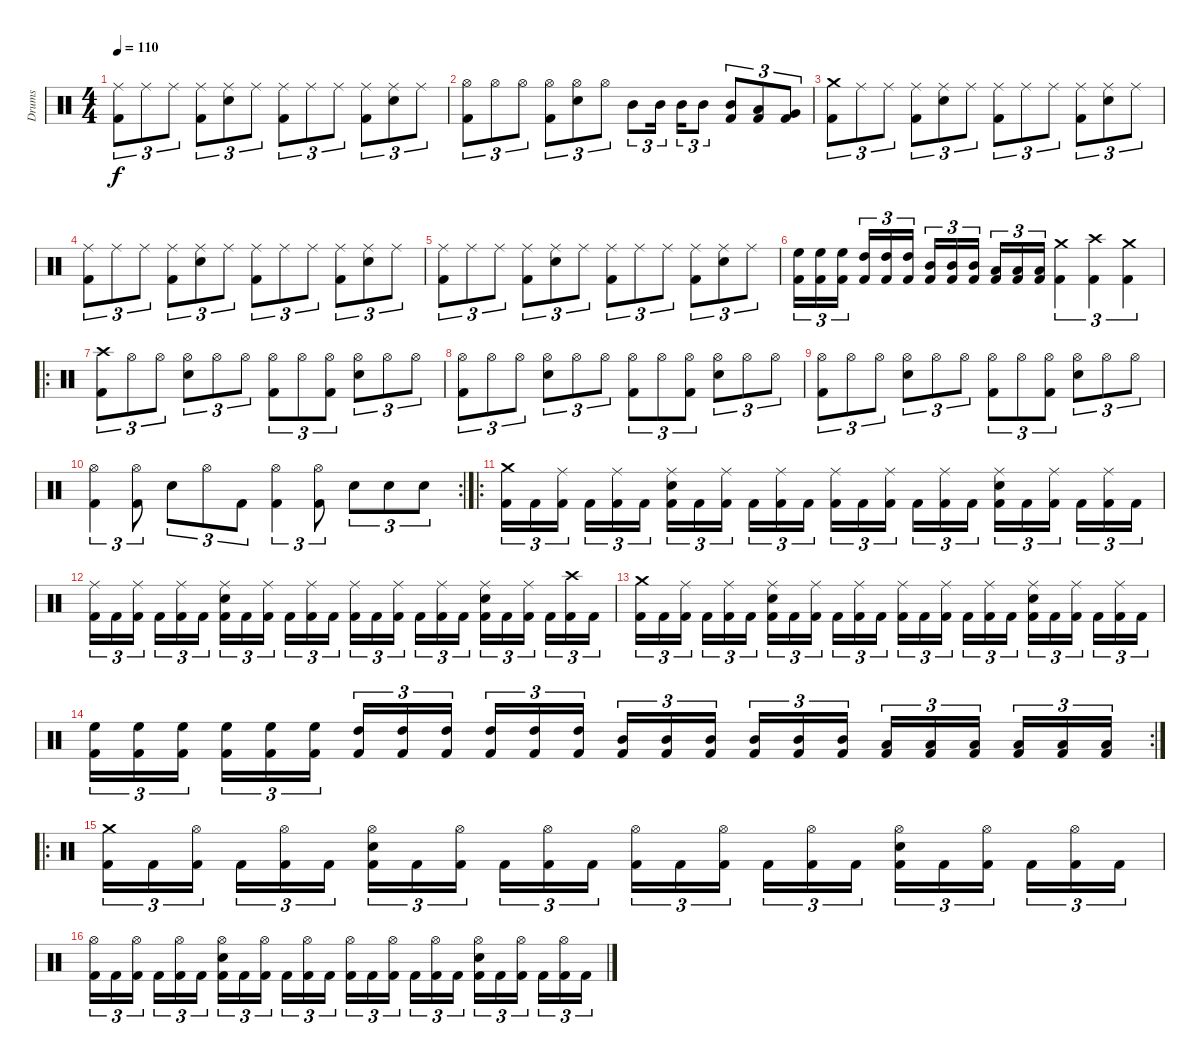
\track ("Drums" "Drums") {instrument percussion}
\staff {score}
\articulation defaults
\ts (4 4)
\tempo 110
\clef neutral
\ks c
("Kick (hit) 2" "Ride (middle)").8{tu (3 2) dy f} "Ride (middle)".8{tu (3 2)} "Ride (middle)".8{tu (3 2)} ("Kick (hit) 2" "Ride (middle)").8{tu (3 2)} ("Electric Snare (hit)" "Ride (middle)").8{tu (3 2)} "Ride (middle)".8{tu (3 2)} ("Kick (hit) 2" "Ride (middle)").8{tu (3 2)} "Ride (middle)".8{tu (3 2)} "Ride (middle)".8{tu (3 2)} ("Kick (hit) 2" "Ride (middle)").8{tu (3 2)} ("Electric Snare (hit)" "Ride (middle)").8{tu (3 2)} "Ride (middle)".8{tu (3 2)} |
("Kick (hit) 2" "Hi-Hat (open)").8{tu (3 2)} "Hi-Hat (open)".8{tu (3 2)} "Hi-Hat (open)".8{tu (3 2)} ("Kick (hit) 2" "Hi-Hat (open)").8{tu (3 2)} ("Electric Snare (hit)" "Hi-Hat (open)").8{tu (3 2)} "Hi-Hat (open)".8{tu (3 2)} "Mid Tom (hit)".8{tu (3 2)} "Mid Tom (hit)".16{tu (3 2)} "Mid Tom (hit)".16{tu (3 2)} "Mid Tom (hit)".8{tu (3 2)} ("Kick (hit) 2" "Mid Tom (hit)").8{tu (3 2)} ("Kick (hit) 2" "Low Tom (hit)").8{tu (3 2)} ("Kick (hit) 2" "Very Low Tom (hit)").8{tu (3 2)} |
("Kick (hit) 2" "Crash medium (hit)").8{tu (3 2)} "Ride (middle)".8{tu (3 2)} "Ride (middle)".8{tu (3 2)} ("Kick (hit) 2" "Ride (middle)").8{tu (3 2)} ("Electric Snare (hit)" "Ride (middle)").8{tu (3 2)} "Ride (middle)".8{tu (3 2)} ("Kick (hit) 2" "Ride (middle)").8{tu (3 2)} "Ride (middle)".8{tu (3 2)} "Ride (middle)".8{tu (3 2)} ("Kick (hit) 2" "Ride (middle)").8{tu (3 2)} ("Electric Snare (hit)" "Ride (middle)").8{tu (3 2)} "Ride (middle)".8{tu (3 2)} |
("Kick (hit) 2" "Ride (middle)").8{tu (3 2)} "Ride (middle)".8{tu (3 2)} "Ride (middle)".8{tu (3 2)} ("Kick (hit) 2" "Ride (middle)").8{tu (3 2)} ("Electric Snare (hit)" "Ride (middle)").8{tu (3 2)} "Ride (middle)".8{tu (3 2)} ("Kick (hit) 2" "Ride (middle)").8{tu (3 2)} "Ride (middle)".8{tu (3 2)} "Ride (middle)".8{tu (3 2)} ("Kick (hit) 2" "Ride (middle)").8{tu (3 2)} ("Electric Snare (hit)" "Ride (middle)").8{tu (3 2)} "Ride (middle)".8{tu (3 2)} |
("Kick (hit) 2" "Ride (middle)").8{tu (3 2)} "Ride (middle)".8{tu (3 2)} "Ride (middle)".8{tu (3 2)} ("Kick (hit) 2" "Ride (middle)").8{tu (3 2)} ("Electric Snare (hit)" "Ride (middle)").8{tu (3 2)} "Ride (middle)".8{tu (3 2)} ("Kick (hit) 2" "Ride (middle)").8{tu (3 2)} "Ride (middle)".8{tu (3 2)} "Ride (middle)".8{tu (3 2)} ("Kick (hit) 2" "Ride (middle)").8{tu (3 2)} ("Electric Snare (hit)" "Ride (middle)").8{tu (3 2)} "Ride (middle)".8{tu (3 2)} |
("Kick (hit) 2" "High Floor Tom (hit)").16{tu (3 2)} ("Kick (hit) 2" "High Floor Tom (hit)").16{tu (3 2)} ("Kick (hit) 2" "High Floor Tom (hit)").16{tu (3 2)} ("Kick (hit) 2" "High Tom (hit)").16{tu (3 2)} ("Kick (hit) 2" "High Tom (hit)").16{tu (3 2)} ("Kick (hit) 2" "High Tom (hit)").16{tu (3 2)} ("Kick (hit) 2" "Mid Tom (hit)").16{tu (3 2)} ("Kick (hit) 2" "Mid Tom (hit)").16{tu (3 2)} ("Kick (hit) 2" "Mid Tom (hit)").16{tu (3 2)} ("Kick (hit) 2" "Low Tom (hit)").16{tu (3 2)} ("Kick (hit) 2" "Low Tom (hit)").16{tu (3 2)} ("Kick (hit) 2" "Low Tom (hit)").16{tu (3 2)} ("Kick (hit) 2" "Crash medium (hit)").4{tu (3 2)} ("Kick (hit) 2" "Crash high (hit)").4{tu (3 2)} ("Kick (hit) 2" "Crash medium (hit)").4{tu (3 2)} |
\ro
("Kick (hit) 2" "Crash high (hit)").8{tu (3 2)} "Hi-Hat (open)".8{tu (3 2)} "Hi-Hat (open)".8{tu (3 2)} ("Electric Snare (hit)" "Hi-Hat (open)").8{tu (3 2)} "Hi-Hat (open)".8{tu (3 2)} "Hi-Hat (open)".8{tu (3 2)} ("Kick (hit) 2" "Hi-Hat (open)").8{tu (3 2)} "Hi-Hat (open)".8{tu (3 2)} ("Kick (hit) 2" "Hi-Hat (open)").8{tu (3 2)} ("Electric Snare (hit)" "Hi-Hat (open)").8{tu (3 2)} "Hi-Hat (open)".8{tu (3 2)} "Hi-Hat (open)".8{tu (3 2)} |
("Kick (hit) 2" "Hi-Hat (open)").8{tu (3 2)} "Hi-Hat (open)".8{tu (3 2)} "Hi-Hat (open)".8{tu (3 2)} ("Electric Snare (hit)" "Hi-Hat (open)").8{tu (3 2)} "Hi-Hat (open)".8{tu (3 2)} "Hi-Hat (open)".8{tu (3 2)} ("Kick (hit) 2" "Hi-Hat (open)").8{tu (3 2)} "Hi-Hat (open)".8{tu (3 2)} ("Kick (hit) 2" "Hi-Hat (open)").8{tu (3 2)} ("Electric Snare (hit)" "Hi-Hat (open)").8{tu (3 2)} "Hi-Hat (open)".8{tu (3 2)} "Hi-Hat (open)".8{tu (3 2)} |
("Kick (hit) 2" "Hi-Hat (open)").8{tu (3 2)} "Hi-Hat (open)".8{tu (3 2)} "Hi-Hat (open)".8{tu (3 2)} ("Electric Snare (hit)" "Hi-Hat (open)").8{tu (3 2)} "Hi-Hat (open)".8{tu (3 2)} "Hi-Hat (open)".8{tu (3 2)} ("Kick (hit) 2" "Hi-Hat (open)").8{tu (3 2)} "Hi-Hat (open)".8{tu (3 2)} ("Kick (hit) 2" "Hi-Hat (open)").8{tu (3 2)} ("Electric Snare (hit)" "Hi-Hat (open)").8{tu (3 2)} "Hi-Hat (open)".8{tu (3 2)} "Hi-Hat (open)".8{tu (3 2)} |
\rc 2
("Kick (hit) 2" "Hi-Hat (open)").4{tu (3 2)} ("Kick (hit) 2" "Hi-Hat (open)").8{tu (3 2)} "Electric Snare (hit)".8{tu (3 2)} "Hi-Hat (open)".8{tu (3 2)} "Kick (hit) 2".8{tu (3 2)} ("Kick (hit) 2" "Hi-Hat (open)").4{tu (3 2)} ("Kick (hit) 2" "Hi-Hat (open)").8{tu (3 2)} "Electric Snare (hit)".8{tu (3 2)} "Electric Snare (hit)".8{tu (3 2)} "Electric Snare (hit)".8{tu (3 2)} |
\ro
("Kick (hit) 2" "Crash medium (hit)").16{tu (3 2)} "Kick (hit) 2".16{tu (3 2)} ("Kick (hit) 2" "Ride (middle)").16{tu (3 2)} "Kick (hit) 2".16{tu (3 2)} ("Kick (hit) 2" "Ride (middle)").16{tu (3 2)} "Kick (hit) 2".16{tu (3 2)} ("Kick (hit) 2" "Electric Snare (hit)" "Ride (middle)").16{tu (3 2)} "Kick (hit) 2".16{tu (3 2)} ("Kick (hit) 2" "Ride (middle)").16{tu (3 2)} "Kick (hit) 2".16{tu (3 2)} ("Kick (hit) 2" "Ride (middle)").16{tu (3 2)} "Kick (hit) 2".16{tu (3 2)} ("Kick (hit) 2" "Ride (middle)").16{tu (3 2)} "Kick (hit) 2".16{tu (3 2)} ("Kick (hit) 2" "Ride (middle)").16{tu (3 2)} "Kick (hit) 2".16{tu (3 2)} ("Kick (hit) 2" "Ride (middle)").16{tu (3 2)} "Kick (hit) 2".16{tu (3 2)} ("Kick (hit) 2" "Electric Snare (hit)" "Ride (middle)").16{tu (3 2)} "Kick (hit) 2".16{tu (3 2)} ("Kick (hit) 2" "Ride (middle)").16{tu (3 2)} "Kick (hit) 2".16{tu (3 2)} ("Kick (hit) 2" "Ride (middle)").16{tu (3 2)} "Kick (hit) 2".16{tu (3 2)} |
("Kick (hit) 2" "Ride (middle)").16{tu (3 2)} "Kick (hit) 2".16{tu (3 2)} ("Kick (hit) 2" "Ride (middle)").16{tu (3 2)} "Kick (hit) 2".16{tu (3 2)} ("Kick (hit) 2" "Ride (middle)").16{tu (3 2)} "Kick (hit) 2".16{tu (3 2)} ("Kick (hit) 2" "Electric Snare (hit)" "Ride (middle)").16{tu (3 2)} "Kick (hit) 2".16{tu (3 2)} ("Kick (hit) 2" "Ride (middle)").16{tu (3 2)} "Kick (hit) 2".16{tu (3 2)} ("Kick (hit) 2" "Ride (middle)").16{tu (3 2)} "Kick (hit) 2".16{tu (3 2)} ("Kick (hit) 2" "Ride (middle)").16{tu (3 2)} "Kick (hit) 2".16{tu (3 2)} ("Kick (hit) 2" "Ride (middle)").16{tu (3 2)} "Kick (hit) 2".16{tu (3 2)} ("Kick (hit) 2" "Ride (middle)").16{tu (3 2)} "Kick (hit) 2".16{tu (3 2)} ("Kick (hit) 2" "Electric Snare (hit)" "Ride (middle)").16{tu (3 2)} "Kick (hit) 2".16{tu (3 2)} ("Kick (hit) 2" "Ride (middle)").16{tu (3 2)} "Kick (hit) 2".16{tu (3 2)} ("Kick (hit) 2" "Crash high (hit)").16{tu (3 2)} "Kick (hit) 2".16{tu (3 2)} |
("Kick (hit) 2" "Crash medium (hit)").16{tu (3 2)} "Kick (hit) 2".16{tu (3 2)} ("Kick (hit) 2" "Ride (middle)").16{tu (3 2)} "Kick (hit) 2".16{tu (3 2)} ("Kick (hit) 2" "Ride (middle)").16{tu (3 2)} "Kick (hit) 2".16{tu (3 2)} ("Kick (hit) 2" "Electric Snare (hit)" "Ride (middle)").16{tu (3 2)} "Kick (hit) 2".16{tu (3 2)} ("Kick (hit) 2" "Ride (middle)").16{tu (3 2)} "Kick (hit) 2".16{tu (3 2)} ("Kick (hit) 2" "Ride (middle)").16{tu (3 2)} "Kick (hit) 2".16{tu (3 2)} ("Kick (hit) 2" "Ride (middle)").16{tu (3 2)} "Kick (hit) 2".16{tu (3 2)} ("Kick (hit) 2" "Ride (middle)").16{tu (3 2)} "Kick (hit) 2".16{tu (3 2)} ("Kick (hit) 2" "Ride (middle)").16{tu (3 2)} "Kick (hit) 2".16{tu (3 2)} ("Kick (hit) 2" "Electric Snare (hit)" "Ride (middle)").16{tu (3 2)} "Kick (hit) 2".16{tu (3 2)} ("Kick (hit) 2" "Ride (middle)").16{tu (3 2)} "Kick (hit) 2".16{tu (3 2)} ("Kick (hit) 2" "Ride (middle)").16{tu (3 2)} "Kick (hit) 2".16{tu (3 2)} |
\rc 2
("Kick (hit) 2" "High Floor Tom (hit)").16{tu (3 2)} ("Kick (hit) 2" "High Floor Tom (hit)").16{tu (3 2)} ("Kick (hit) 2" "High Floor Tom (hit)").16{tu (3 2)} ("Kick (hit) 2" "High Floor Tom (hit)").16{tu (3 2)} ("Kick (hit) 2" "High Floor Tom (hit)").16{tu (3 2)} ("Kick (hit) 2" "High Floor Tom (hit)").16{tu (3 2)} ("Kick (hit) 2" "High Tom (hit)").16{tu (3 2)} ("Kick (hit) 2" "High Tom (hit)").16{tu (3 2)} ("Kick (hit) 2" "High Tom (hit)").16{tu (3 2)} ("Kick (hit) 2" "High Tom (hit)").16{tu (3 2)} ("Kick (hit) 2" "High Tom (hit)").16{tu (3 2)} ("Kick (hit) 2" "High Tom (hit)").16{tu (3 2)} ("Kick (hit) 2" "Mid Tom (hit)").16{tu (3 2)} ("Kick (hit) 2" "Mid Tom (hit)").16{tu (3 2)} ("Kick (hit) 2" "Mid Tom (hit)").16{tu (3 2)} ("Kick (hit) 2" "Mid Tom (hit)").16{tu (3 2)} ("Kick (hit) 2" "Mid Tom (hit)").16{tu (3 2)} ("Kick (hit) 2" "Mid Tom (hit)").16{tu (3 2)} ("Kick (hit) 2" "Low Tom (hit)").16{tu (3 2)} ("Kick (hit) 2" "Low Tom (hit)").16{tu (3 2)} ("Kick (hit) 2" "Low Tom (hit)").16{tu (3 2)} ("Kick (hit) 2" "Low Tom (hit)").16{tu (3 2)} ("Kick (hit) 2" "Low Tom (hit)").16{tu (3 2)} ("Kick (hit) 2" "Low Tom (hit)").16{tu (3 2)} |
\ro
("Kick (hit) 2" "Crash medium (hit)").16{tu (3 2)} "Kick (hit) 2".16{tu (3 2)} ("Kick (hit) 2" "Hi-Hat (open)").16{tu (3 2)} "Kick (hit) 2".16{tu (3 2)} ("Kick (hit) 2" "Hi-Hat (open)").16{tu (3 2)} "Kick (hit) 2".16{tu (3 2)} ("Kick (hit) 2" "Electric Snare (hit)" "Hi-Hat (open)").16{tu (3 2)} "Kick (hit) 2".16{tu (3 2)} ("Kick (hit) 2" "Hi-Hat (open)").16{tu (3 2)} "Kick (hit) 2".16{tu (3 2)} ("Kick (hit) 2" "Hi-Hat (open)").16{tu (3 2)} "Kick (hit) 2".16{tu (3 2)} ("Kick (hit) 2" "Hi-Hat (open)").16{tu (3 2)} "Kick (hit) 2".16{tu (3 2)} ("Kick (hit) 2" "Hi-Hat (open)").16{tu (3 2)} "Kick (hit) 2".16{tu (3 2)} ("Kick (hit) 2" "Hi-Hat (open)").16{tu (3 2)} "Kick (hit) 2".16{tu (3 2)} ("Kick (hit) 2" "Electric Snare (hit)" "Hi-Hat (open)").16{tu (3 2)} "Kick (hit) 2".16{tu (3 2)} ("Kick (hit) 2" "Hi-Hat (open)").16{tu (3 2)} "Kick (hit) 2".16{tu (3 2)} ("Kick (hit) 2" "Hi-Hat (open)").16{tu (3 2)} "Kick (hit) 2".16{tu (3 2)} |
("Kick (hit) 2" "Hi-Hat (open)").16{tu (3 2)} "Kick (hit) 2".16{tu (3 2)} ("Kick (hit) 2" "Hi-Hat (open)").16{tu (3 2)} "Kick (hit) 2".16{tu (3 2)} ("Kick (hit) 2" "Hi-Hat (open)").16{tu (3 2)} "Kick (hit) 2".16{tu (3 2)} ("Kick (hit) 2" "Electric Snare (hit)" "Hi-Hat (open)").16{tu (3 2)} "Kick (hit) 2".16{tu (3 2)} ("Kick (hit) 2" "Hi-Hat (open)").16{tu (3 2)} "Kick (hit) 2".16{tu (3 2)} ("Kick (hit) 2" "Hi-Hat (open)").16{tu (3 2)} "Kick (hit) 2".16{tu (3 2)} ("Kick (hit) 2" "Hi-Hat (open)").16{tu (3 2)} "Kick (hit) 2".16{tu (3 2)} ("Kick (hit) 2" "Hi-Hat (open)").16{tu (3 2)} "Kick (hit) 2".16{tu (3 2)} ("Kick (hit) 2" "Hi-Hat (open)").16{tu (3 2)} "Kick (hit) 2".16{tu (3 2)} ("Kick (hit) 2" "Electric Snare (hit)" "Hi-Hat (open)").16{tu (3 2)} "Kick (hit) 2".16{tu (3 2)} ("Kick (hit) 2" "Hi-Hat (open)").16{tu (3 2)} "Kick (hit) 2".16{tu (3 2)} ("Kick (hit) 2" "Hi-Hat (open)").16{tu (3 2)} "Kick (hit) 2".16{tu (3 2)}
